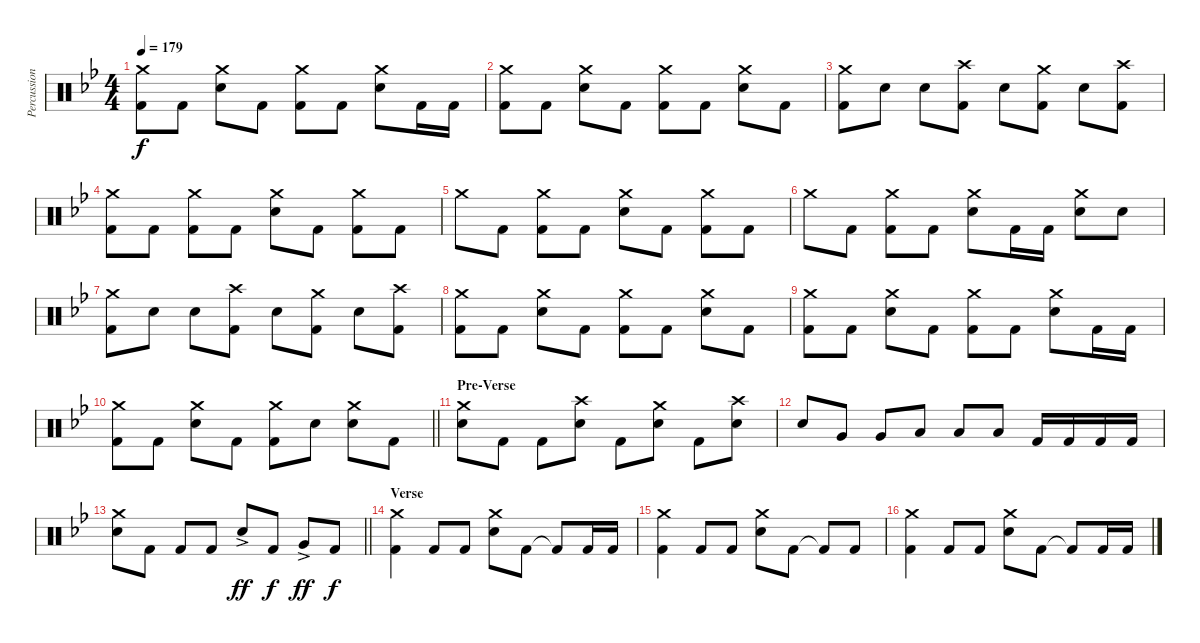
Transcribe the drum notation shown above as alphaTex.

\track ("Percussion" "Percussion") {instrument percussion}
\staff {score}
\articulation defaults
\ts (4 4)
\tempo 179
\clef neutral
\ks bb
("Crash medium (hit)" "Kick (hit) 2").8{dy f} "Kick (hit) 2".8 ("Crash medium (hit)" "Electric Snare (hit)").8 "Kick (hit) 2".8 ("Crash medium (hit)" "Kick (hit) 2").8 "Kick (hit) 2".8 ("Crash medium (hit)" "Electric Snare (hit)").8 "Kick (hit) 2".16 "Kick (hit) 2".16 |
("Crash medium (hit)" "Kick (hit) 2").8 "Kick (hit) 2".8 ("Crash medium (hit)" "Electric Snare (hit)").8 "Kick (hit) 2".8 ("Crash medium (hit)" "Kick (hit) 2").8 "Kick (hit) 2".8 ("Crash medium (hit)" "Electric Snare (hit)").8 "Kick (hit) 2".8 |
("Crash medium (hit)" "Kick (hit) 2").8 "Electric Snare (hit)".8 "Electric Snare (hit)".8 ("Crash high (hit)" "Kick (hit) 2").8 "Electric Snare (hit)".8 ("Crash medium (hit)" "Kick (hit) 2").8 "Electric Snare (hit)".8 ("Crash high (hit)" "Kick (hit) 2").8 |
("Crash medium (hit)" "Kick (hit) 2").8 "Kick (hit) 2".8 ("Crash medium (hit)" "Kick (hit) 2").8 "Kick (hit) 2".8 ("Crash medium (hit)" "Electric Snare (hit)").8 "Kick (hit) 2".8 ("Crash medium (hit)" "Kick (hit) 2").8 "Kick (hit) 2".8 |
"Crash medium (hit)".8 "Kick (hit) 2".8 ("Crash medium (hit)" "Kick (hit) 2").8 "Kick (hit) 2".8 ("Crash medium (hit)" "Electric Snare (hit)").8 "Kick (hit) 2".8 ("Crash medium (hit)" "Kick (hit) 2").8 "Kick (hit) 2".8 |
"Crash medium (hit)".8 "Kick (hit) 2".8 ("Crash medium (hit)" "Kick (hit) 2").8 "Kick (hit) 2".8 ("Crash medium (hit)" "Electric Snare (hit)").8 "Kick (hit) 2".16 "Kick (hit) 2".16 ("Crash medium (hit)" "Electric Snare (hit)").8 "Electric Snare (hit)".8 |
("Crash medium (hit)" "Kick (hit) 2").8 "Electric Snare (hit)".8 "Electric Snare (hit)".8 ("Crash high (hit)" "Kick (hit) 2").8 "Electric Snare (hit)".8 ("Crash medium (hit)" "Kick (hit) 2").8 "Electric Snare (hit)".8 ("Crash high (hit)" "Kick (hit) 2").8 |
("Crash medium (hit)" "Kick (hit) 2").8 "Kick (hit) 2".8 ("Crash medium (hit)" "Electric Snare (hit)").8 "Kick (hit) 2".8 ("Crash medium (hit)" "Kick (hit) 2").8 "Kick (hit) 2".8 ("Crash medium (hit)" "Electric Snare (hit)").8 "Kick (hit) 2".8 |
("Crash medium (hit)" "Kick (hit) 2").8 "Kick (hit) 2".8 ("Crash medium (hit)" "Electric Snare (hit)").8 "Kick (hit) 2".8 ("Crash medium (hit)" "Kick (hit) 2").8 "Kick (hit) 2".8 ("Crash medium (hit)" "Electric Snare (hit)").8 "Kick (hit) 2".16 "Kick (hit) 2".16 |
\barLineRight lightlight
("Crash medium (hit)" "Kick (hit) 2").8 "Kick (hit) 2".8 ("Crash medium (hit)" "Electric Snare (hit)").8 "Kick (hit) 2".8 ("Crash medium (hit)" "Kick (hit) 2").8 "Electric Snare (hit)".8 ("Crash medium (hit)" "Electric Snare (hit)").8 "Kick (hit) 2".8 |
\section ("" "Pre-Verse")
("Crash medium (hit)" "Electric Snare (hit)").8 "Kick (hit) 2".8 "Kick (hit) 2".8 ("Crash high (hit)" "Electric Snare (hit)").8 "Kick (hit) 2".8 ("Crash medium (hit)" "Electric Snare (hit)").8 "Kick (hit) 2".8 ("Crash high (hit)" "Electric Snare (hit)").8 |
"Electric Snare (hit)".8 "Very Low Tom (hit)".8 "Very Low Tom (hit)".8 "Low Floor Tom (hit)".8 "Low Floor Tom (hit)".8 "Low Floor Tom (hit)".8 "Kick (hit) 2".16 "Kick (hit) 2".16 "Kick (hit) 2".16 "Kick (hit) 2".16 |
\barLineRight lightlight
("Crash medium (hit)" "Electric Snare (hit)").8 "Kick (hit) 2".8 "Kick (hit) 2".8 "Kick (hit) 2".8 "Electric Snare (hit)"{ac}.8{dy ff} "Kick (hit) 2".8{dy f} "Very Low Tom (hit)"{ac}.8{dy ff} "Kick (hit) 2".8{dy f} |
\section ("" "Verse")
("Crash medium (hit)" "Kick (hit) 2").4 "Kick (hit) 2".8 "Kick (hit) 2".8 ("Crash medium (hit)" "Electric Snare (hit)").8 "Kick (hit) 2".8 "Kick (hit) 2"{t}.8 "Kick (hit) 2".16 "Kick (hit) 2".16 |
("Crash medium (hit)" "Kick (hit) 2").4 "Kick (hit) 2".8 "Kick (hit) 2".8 ("Crash medium (hit)" "Electric Snare (hit)").8 "Kick (hit) 2".8 "Kick (hit) 2"{t}.8 "Kick (hit) 2".8 |
("Crash medium (hit)" "Kick (hit) 2").4 "Kick (hit) 2".8 "Kick (hit) 2".8 ("Crash medium (hit)" "Electric Snare (hit)").8 "Kick (hit) 2".8 "Kick (hit) 2"{t}.8 "Kick (hit) 2".16 "Kick (hit) 2".16
